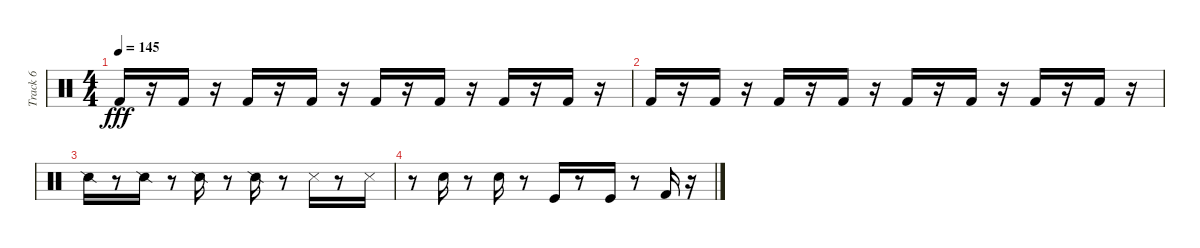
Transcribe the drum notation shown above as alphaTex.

\track ("Track 6" "Track 6") {instrument percussion}
\staff {score}
\articulation defaults
\ts (4 4)
\tempo 145
\clef neutral
\ks c "Kick (hit) 2".16{dy fff}
r.16 "Kick (hit) 2".16 r.16 "Kick (hit) 2".16 r.16 "Kick (hit) 2".16 r.16 "Kick (hit) 2".16 r.16 "Kick (hit) 2".16 r.16 "Kick (hit) 2".16 r.16 "Kick (hit) 2".16 r.16 |
"Kick (hit) 2".16 r.16 "Kick (hit) 2".16 r.16 "Kick (hit) 2".16 r.16 "Kick (hit) 2".16 r.16 "Kick (hit) 2".16 r.16 "Kick (hit) 2".16 r.16 "Kick (hit) 2".16 r.16 "Kick (hit) 2".16 r.16 |
"Snare (side stick) 2".16 r.8 "Snare (side stick) 2".16 r.8 "Snare (side stick) 2".16 r.8 "Snare (side stick) 2".16 r.8 "Metronome (hit)".16 r.8 "Metronome (hit)".16 |
r.8 "Metronome (bell)".16 r.8 "Metronome (bell)".16 r.8 "Kick (hit)".16 r.8 "Kick (hit)".16 r.8 "Kick (hit) 2".16 r.16
